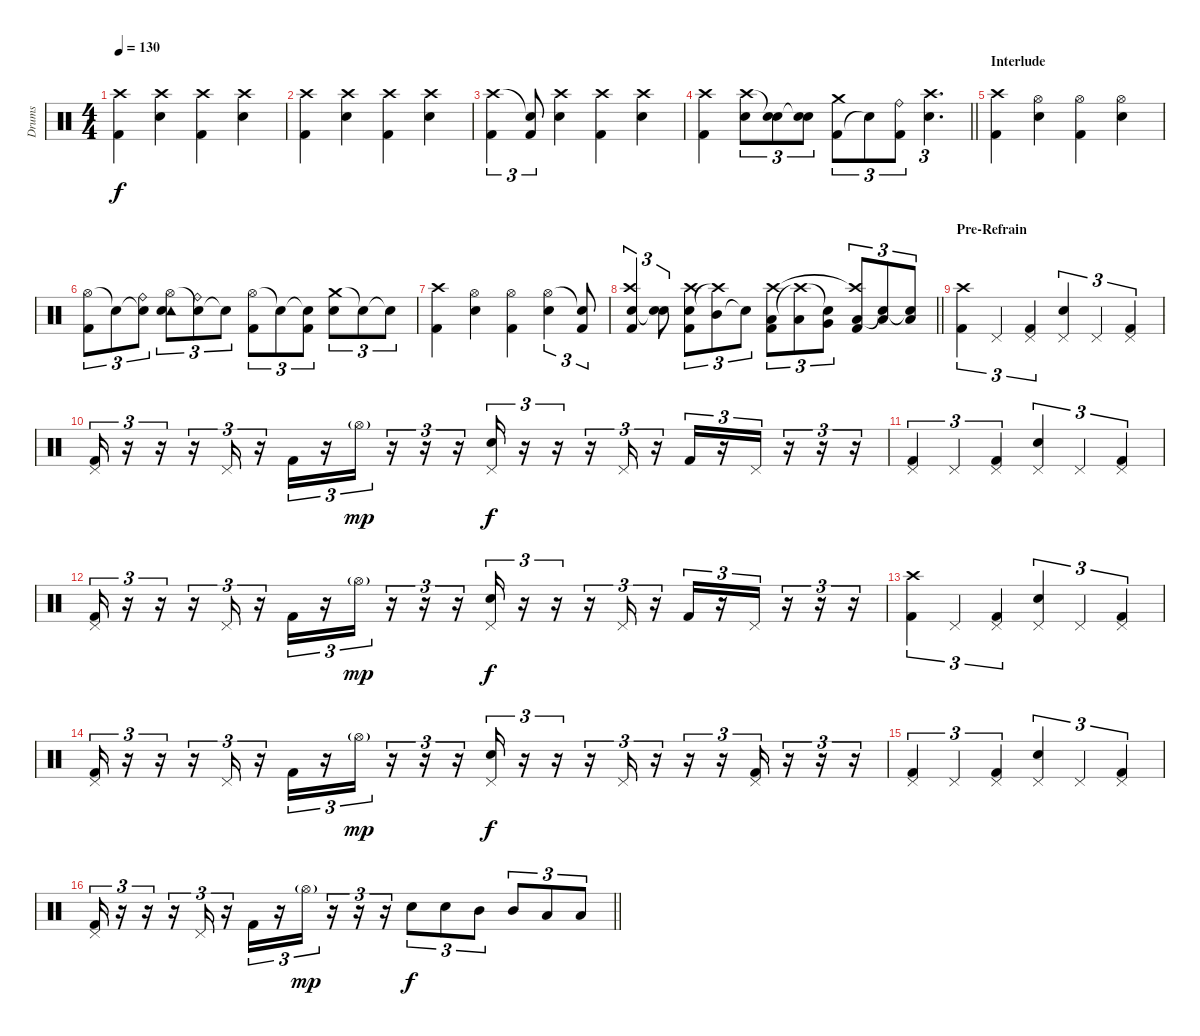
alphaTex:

\track ("Drums" "Drums") {instrument percussion}
\staff {score}
\articulation defaults
\ts (4 4)
\tempo 130
\clef neutral
\ks c
("Kick (hit) 2" "Crash high (hit)").4{dy f} ("Snare (hit) 2" "Crash high (hit)").4 ("Kick (hit) 2" "Crash high (hit)").4 ("Snare (hit) 2" "Crash high (hit)").4 |
("Kick (hit) 2" "Crash high (hit)").4 ("Snare (hit) 2" "Crash high (hit)").4 ("Kick (hit) 2" "Crash high (hit)").4 ("Snare (hit) 2" "Crash high (hit)").4 |
("Kick (hit) 2" "Crash high (hit)").4{tu (3 2)} ("Kick (hit) 2" "Snare (hit)"{t}).8{tu (3 2)} ("Snare (hit) 2" "Crash high (hit)").4 ("Kick (hit) 2" "Crash high (hit)").4 ("Snare (hit) 2" "Crash high (hit)").4 |
\barLineRight lightlight
("Kick (hit) 2" "Crash high (hit)").4 ("Snare (hit) 2" "Crash high (hit)").8{tu (3 2)} ("Snare (hit) 2" "Snare (hit)"{t}).8{tu (3 2)} ("Snare (hit) 2" "Snare (hit)"{t}).8{tu (3 2)} ("Kick (hit) 2" "Crash medium (hit)").8{tu (3 2)} "Snare (hit)"{t}.8{tu (3 2)} ("Kick (hit) 2" "Ride (bell)").8{tu (3 2)} ("Snare (hit) 2" "Crash high (hit)").4{d tu (3 2)} |
\section ("" "Interlude")
("Kick (hit) 2" "Crash high (hit)").4 ("Snare (hit) 2" "Hi-Hat (open)").4 ("Kick (hit) 2" "Hi-Hat (open)").4 ("Snare (hit) 2" "Hi-Hat (open)").4 |
("Hi-Hat (open)" "Kick (hit) 2").8{tu (3 2)} "Snare (hit)"{t}.8{tu (3 2)} ("Snare (hit)"{t} "Ride (bell)").8{tu (3 2)} ("Hi-Hat (open)" "Tambourine (hit)" "Snare (hit) 2").8{tu (3 2)} ("Snare (hit)"{t} "Ride (bell)").8{tu (3 2)} "Snare (hit)"{t}.8{tu (3 2)} ("Hi-Hat (open)" "Kick (hit) 2").8{tu (3 2)} "Snare (hit)"{t}.8{tu (3 2)} ("Snare (hit)"{t} "Kick (hit) 2").8{tu (3 2)} ("Crash medium (hit)" "Snare (hit) 2").8{tu (3 2)} "Snare (hit)"{t}.8{tu (3 2)} "Snare (hit)"{t}.8{tu (3 2)} |
("Kick (hit) 2" "Crash high (hit)").4 ("Snare (hit) 2" "Hi-Hat (open)").4 ("Kick (hit) 2" "Hi-Hat (open)").4 ("Snare (hit) 2" "Hi-Hat (open)").4{tu (3 2)} ("Kick (hit) 2" "Snare (hit)"{t}).8{tu (3 2)} |
\barLineRight lightlight
("Kick (hit) 2" "Electric Snare (hit)" "Crash high (hit)").4{tu (3 2)} ("Electric Snare (hit)" "Snare (hit)"{t}).8{tu (3 2)} ("Kick (hit) 2" "Electric Snare (hit)" "Crash high (hit)").8{tu (3 2)} ("Mid Tom (hit)" "Crash high (hit)"{t}).8{tu (3 2)} "Snare (hit)"{t}.8{tu (3 2)} ("Kick (hit) 2" "Low Tom (hit)" "Crash high (hit)").8{tu (3 2)} ("Low Tom (hit)" "Crash high (hit)"{t}).8{tu (3 2)} ("Very Low Tom (hit)" "Snare (hit)"{t}).8{tu (3 2)} ("Kick (hit) 2" "Low Floor Tom (hit)" "Crash high (hit)"{t}).8{tu (3 2)} ("Low Floor Tom (hit)" "Snare (hit)"{t}).8{tu (3 2)} ("Low Floor Tom (hit)" "Snare (hit)"{t}).8{tu (3 2)} |
\section ("" "Pre-Refrain")
("Crash high (hit)" "Kick (hit) 2").4{tu (3 2)} "Pedal Hi-Hat (hit)".4{tu (3 2)} ("Pedal Hi-Hat (hit)" "Kick (hit) 2").4{tu (3 2)} ("Pedal Hi-Hat (hit)" "Snare (hit) 2").4{tu (3 2)} "Pedal Hi-Hat (hit)".4{tu (3 2)} ("Pedal Hi-Hat (hit)" "Kick (hit) 2").4{tu (3 2)} |
("Pedal Hi-Hat (hit)" "Kick (hit) 2").16{tu (3 2)} r.16{tu (3 2)} r.16{tu (3 2)} r.16{tu (3 2)} "Pedal Hi-Hat (hit)".16{tu (3 2)} r.16{tu (3 2)} "Kick (hit) 2".16{tu (3 2)} r.16{tu (3 2)} "Hi-Hat (open)"{g}.16{tu (3 2) dy mp} r.16{tu (3 2)} r.16{tu (3 2)} r.16{tu (3 2)} ("Pedal Hi-Hat (hit)" "Snare (hit) 2").16{tu (3 2) dy f} r.16{tu (3 2)} r.16{tu (3 2)} r.16{tu (3 2)} "Pedal Hi-Hat (hit)".16{tu (3 2)} r.16{tu (3 2)} "Kick (hit) 2".16{tu (3 2)} r.16{tu (3 2)} "Pedal Hi-Hat (hit)".16{tu (3 2)} r.16{tu (3 2)} r.16{tu (3 2)} r.16{tu (3 2)} |
("Pedal Hi-Hat (hit)" "Kick (hit) 2").4{tu (3 2)} "Pedal Hi-Hat (hit)".4{tu (3 2)} ("Pedal Hi-Hat (hit)" "Kick (hit) 2").4{tu (3 2)} ("Pedal Hi-Hat (hit)" "Snare (hit) 2").4{tu (3 2)} "Pedal Hi-Hat (hit)".4{tu (3 2)} ("Pedal Hi-Hat (hit)" "Kick (hit) 2").4{tu (3 2)} |
("Pedal Hi-Hat (hit)" "Kick (hit) 2").16{tu (3 2)} r.16{tu (3 2)} r.16{tu (3 2)} r.16{tu (3 2)} "Pedal Hi-Hat (hit)".16{tu (3 2)} r.16{tu (3 2)} "Kick (hit) 2".16{tu (3 2)} r.16{tu (3 2)} "Hi-Hat (open)"{g}.16{tu (3 2) dy mp} r.16{tu (3 2)} r.16{tu (3 2)} r.16{tu (3 2)} ("Pedal Hi-Hat (hit)" "Snare (hit) 2").16{tu (3 2) dy f} r.16{tu (3 2)} r.16{tu (3 2)} r.16{tu (3 2)} "Pedal Hi-Hat (hit)".16{tu (3 2)} r.16{tu (3 2)} "Kick (hit) 2".16{tu (3 2)} r.16{tu (3 2)} "Pedal Hi-Hat (hit)".16{tu (3 2)} r.16{tu (3 2)} r.16{tu (3 2)} r.16{tu (3 2)} |
("Crash high (hit)" "Kick (hit) 2").4{tu (3 2)} "Pedal Hi-Hat (hit)".4{tu (3 2)} ("Pedal Hi-Hat (hit)" "Kick (hit) 2").4{tu (3 2)} ("Pedal Hi-Hat (hit)" "Snare (hit) 2").4{tu (3 2)} "Pedal Hi-Hat (hit)".4{tu (3 2)} ("Pedal Hi-Hat (hit)" "Kick (hit) 2").4{tu (3 2)} |
("Pedal Hi-Hat (hit)" "Kick (hit) 2").16{tu (3 2)} r.16{tu (3 2)} r.16{tu (3 2)} r.16{tu (3 2)} "Pedal Hi-Hat (hit)".16{tu (3 2)} r.16{tu (3 2)} "Kick (hit) 2".16{tu (3 2)} r.16{tu (3 2)} "Hi-Hat (open)"{g}.16{tu (3 2) dy mp} r.16{tu (3 2)} r.16{tu (3 2)} r.16{tu (3 2)} ("Pedal Hi-Hat (hit)" "Snare (hit) 2").16{tu (3 2) dy f} r.16{tu (3 2)} r.16{tu (3 2)} r.16{tu (3 2)} "Pedal Hi-Hat (hit)".16{tu (3 2)} r.16{tu (3 2)} r.16{tu (3 2)} r.16{tu (3 2)} ("Pedal Hi-Hat (hit)" "Kick (hit) 2").16{tu (3 2)} r.16{tu (3 2)} r.16{tu (3 2)} r.16{tu (3 2)} |
("Pedal Hi-Hat (hit)" "Kick (hit) 2").4{tu (3 2)} "Pedal Hi-Hat (hit)".4{tu (3 2)} ("Pedal Hi-Hat (hit)" "Kick (hit) 2").4{tu (3 2)} ("Pedal Hi-Hat (hit)" "Snare (hit) 2").4{tu (3 2)} "Pedal Hi-Hat (hit)".4{tu (3 2)} ("Pedal Hi-Hat (hit)" "Kick (hit) 2").4{tu (3 2)} |
\barLineRight lightlight
("Pedal Hi-Hat (hit)" "Kick (hit) 2").16{tu (3 2)} r.16{tu (3 2)} r.16{tu (3 2)} r.16{tu (3 2)} "Pedal Hi-Hat (hit)".16{tu (3 2)} r.16{tu (3 2)} "Kick (hit) 2".16{tu (3 2)} r.16{tu (3 2)} "Hi-Hat (open)"{g}.16{tu (3 2) dy mp} r.16{tu (3 2)} r.16{tu (3 2)} r.16{tu (3 2)} "Snare (hit) 2".8{tu (3 2) dy f} "Snare (hit) 2".8{tu (3 2)} "Mid Tom (hit)".8{tu (3 2)} "Mid Tom (hit)".8{tu (3 2)} "Low Tom (hit)".8{tu (3 2)} "Low Tom (hit)".8{tu (3 2)}
